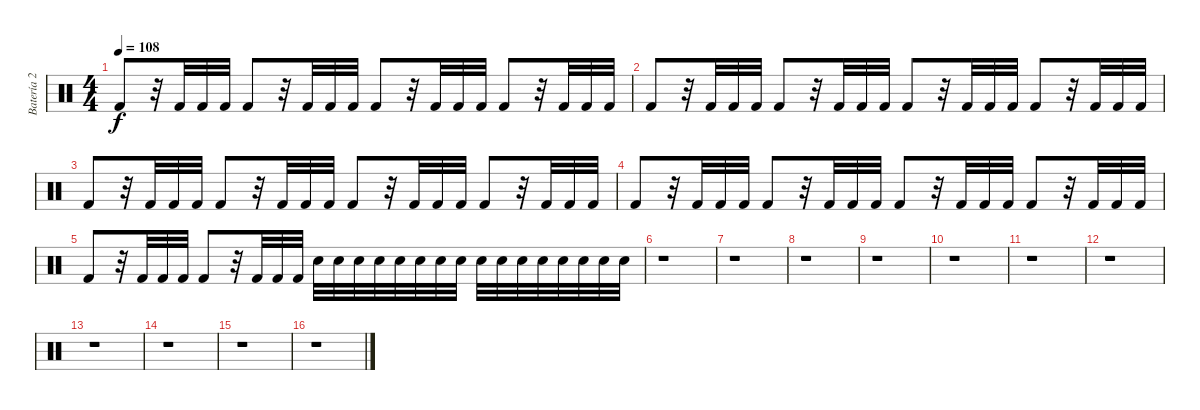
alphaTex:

\track ("Batería 2" "Batería 2") {instrument percussion}
\staff {score}
\articulation defaults
\ts (4 4)
\tempo 108
\clef neutral
\ks c "Kick (hit) 2".8{dy f}
r.32 "Kick (hit) 2".32 "Kick (hit) 2".32 "Kick (hit) 2".32 "Kick (hit) 2".8 r.32 "Kick (hit) 2".32 "Kick (hit) 2".32 "Kick (hit) 2".32 "Kick (hit) 2".8 r.32 "Kick (hit) 2".32 "Kick (hit) 2".32 "Kick (hit) 2".32 "Kick (hit) 2".8 r.32 "Kick (hit) 2".32 "Kick (hit) 2".32 "Kick (hit) 2".32 |
"Kick (hit) 2".8 r.32 "Kick (hit) 2".32 "Kick (hit) 2".32 "Kick (hit) 2".32 "Kick (hit) 2".8 r.32 "Kick (hit) 2".32 "Kick (hit) 2".32 "Kick (hit) 2".32 "Kick (hit) 2".8 r.32 "Kick (hit) 2".32 "Kick (hit) 2".32 "Kick (hit) 2".32 "Kick (hit) 2".8 r.32 "Kick (hit) 2".32 "Kick (hit) 2".32 "Kick (hit) 2".32 |
"Kick (hit) 2".8 r.32 "Kick (hit) 2".32 "Kick (hit) 2".32 "Kick (hit) 2".32 "Kick (hit) 2".8 r.32 "Kick (hit) 2".32 "Kick (hit) 2".32 "Kick (hit) 2".32 "Kick (hit) 2".8 r.32 "Kick (hit) 2".32 "Kick (hit) 2".32 "Kick (hit) 2".32 "Kick (hit) 2".8 r.32 "Kick (hit) 2".32 "Kick (hit) 2".32 "Kick (hit) 2".32 |
"Kick (hit) 2".8 r.32 "Kick (hit) 2".32 "Kick (hit) 2".32 "Kick (hit) 2".32 "Kick (hit) 2".8 r.32 "Kick (hit) 2".32 "Kick (hit) 2".32 "Kick (hit) 2".32 "Kick (hit) 2".8 r.32 "Kick (hit) 2".32 "Kick (hit) 2".32 "Kick (hit) 2".32 "Kick (hit) 2".8 r.32 "Kick (hit) 2".32 "Kick (hit) 2".32 "Kick (hit) 2".32 |
"Kick (hit) 2".8 r.32 "Kick (hit) 2".32 "Kick (hit) 2".32 "Kick (hit) 2".32 "Kick (hit) 2".8 r.32 "Kick (hit) 2".32 "Kick (hit) 2".32 "Kick (hit) 2".32 "Snare (hit) 2".32 "Snare (hit) 2".32 "Snare (hit) 2".32 "Snare (hit) 2".32 "Snare (hit) 2".32 "Snare (hit) 2".32 "Snare (hit) 2".32 "Snare (hit) 2".32 "Snare (hit) 2".32 "Snare (hit) 2".32 "Snare (hit) 2".32 "Snare (hit) 2".32 "Snare (hit) 2".32 "Snare (hit) 2".32 "Snare (hit) 2".32 "Snare (hit) 2".32 |
r.1 |
r.1 |
r.1 |
r.1 |
r.1 |
r.1 |
r.1 |
r.1 |
r.1 |
r.1 |
r.1
